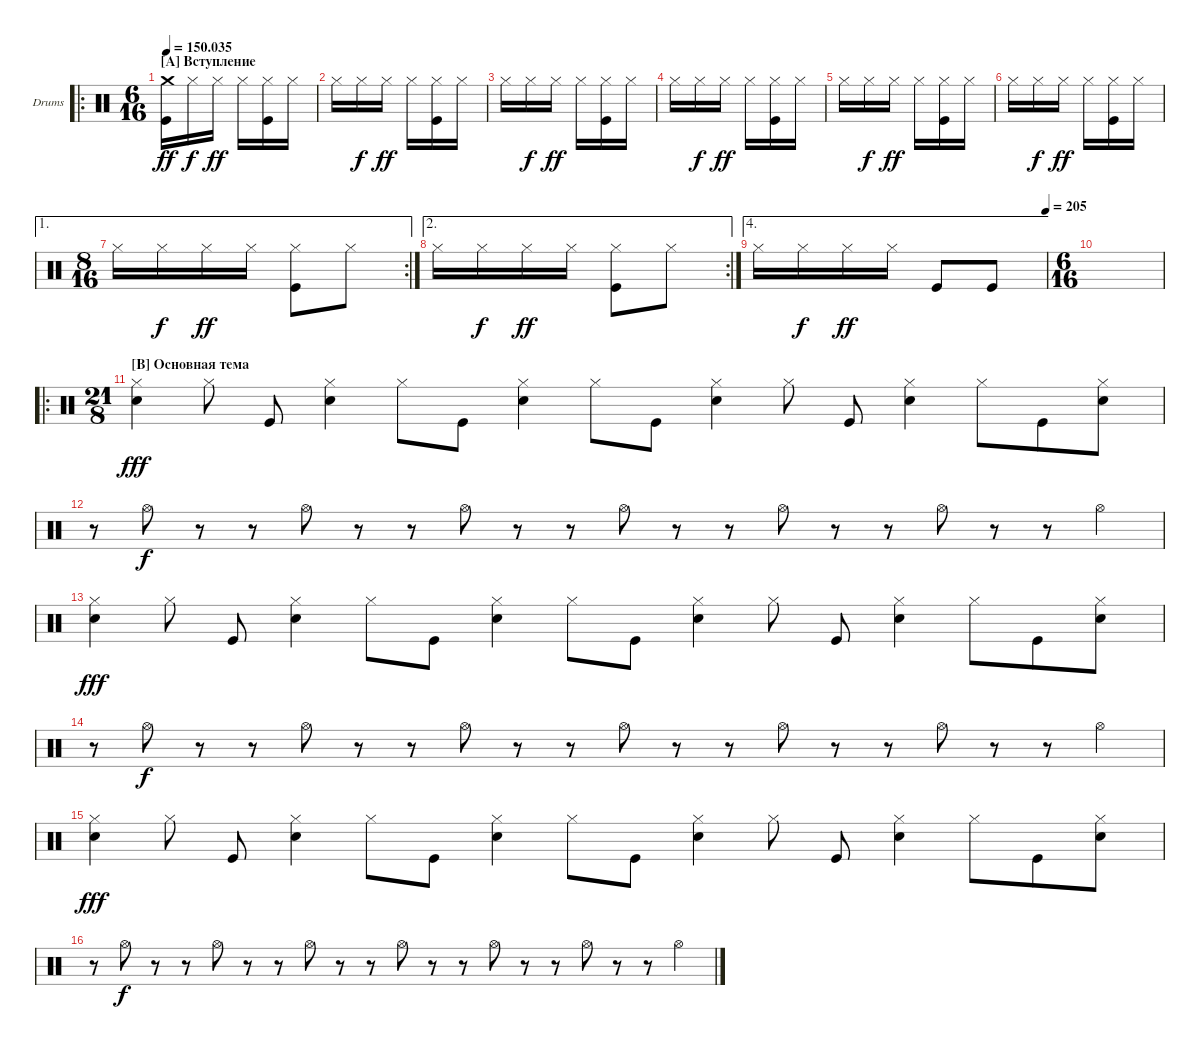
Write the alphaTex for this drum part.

\bracketExtendMode groupsimilarinstruments
\firstSystemTrackNameOrientation horizontal
\otherSystemsTrackNameOrientation horizontal
\track ("Сеня(Drumkit)" "Drums") {instrument percussion}
\staff {score}
\articulation defaults
\ro
\ts (6 16)
\section ("A" "Вступление")
\tempo
150.035
\accidentals auto
\clef neutral
\ottava regular
\simile none
\ks c
("Crash medium (hit)" "Kick (hit)").16{dy ff} "Hi-Hat (closed)".16{dy f} "Hi-Hat (closed)".16{dy ff} "Hi-Hat (closed)".16 ("Hi-Hat (closed)" "Kick (hit)").16 "Hi-Hat (closed)".16 |
"Hi-Hat (closed)".16 "Hi-Hat (closed)".16{dy f} "Hi-Hat (closed)".16{dy ff} "Hi-Hat (closed)".16 ("Hi-Hat (closed)" "Kick (hit)").16 "Hi-Hat (closed)".16 |
"Hi-Hat (closed)".16 "Hi-Hat (closed)".16{dy f} "Hi-Hat (closed)".16{dy ff} "Hi-Hat (closed)".16 ("Hi-Hat (closed)" "Kick (hit)").16 "Hi-Hat (closed)".16 |
"Hi-Hat (closed)".16 "Hi-Hat (closed)".16{dy f} "Hi-Hat (closed)".16{dy ff} "Hi-Hat (closed)".16 ("Hi-Hat (closed)" "Kick (hit)").16 "Hi-Hat (closed)".16 |
"Hi-Hat (closed)".16 "Hi-Hat (closed)".16{dy f} "Hi-Hat (closed)".16{dy ff} "Hi-Hat (closed)".16 ("Hi-Hat (closed)" "Kick (hit)").16 "Hi-Hat (closed)".16 |
"Hi-Hat (closed)".16 "Hi-Hat (closed)".16{dy f} "Hi-Hat (closed)".16{dy ff} "Hi-Hat (closed)".16 ("Hi-Hat (closed)" "Kick (hit)").16 "Hi-Hat (closed)".16 |
\ae 1
\rc 2
\ts (8 16)
"Hi-Hat (closed)".16 "Hi-Hat (closed)".16{dy f} "Hi-Hat (closed)".16{dy ff} "Hi-Hat (closed)".16 ("Hi-Hat (closed)" "Kick (hit)").8 "Hi-Hat (closed)".8 |
\ae 2
\rc 2 "Hi-Hat (closed)".16 "Hi-Hat (closed)".16{dy f} "Hi-Hat (closed)".16{dy ff} "Hi-Hat (closed)".16
("Hi-Hat (closed)" "Kick (hit)").8 "Hi-Hat (closed)".8 |
\ae 4
\tempo (205 1)
"Hi-Hat (closed)".16 "Hi-Hat (closed)".16{dy f} "Hi-Hat (closed)".16{dy ff} "Hi-Hat (closed)".16 "Kick (hit)".8 "Kick (hit)".8 |
\ts (6 16)
|
\ro
\ts (21 8)
\section ("B" "Основная тема")
("Snare (hit) 2" "Hi-Hat (closed)").4{dy fff} "Hi-Hat (closed)".8 "Kick (hit)".8 ("Snare (hit) 2" "Hi-Hat (closed)").4 "Hi-Hat (closed)".8 "Kick (hit)".8 ("Snare (hit) 2" "Hi-Hat (closed)").4 "Hi-Hat (closed)".8 "Kick (hit)".8 ("Snare (hit) 2" "Hi-Hat (closed)").4 "Hi-Hat (closed)".8 "Kick (hit)".8 ("Snare (hit) 2" "Hi-Hat (closed)").4 "Hi-Hat (closed)".8 "Kick (hit)".8 ("Snare (hit) 2" "Hi-Hat (closed)").8 |
r.8 "Hi-Hat (open)".8{dy f} r.8 r.8 "Hi-Hat (open)".8 r.8 r.8 "Hi-Hat (open)".8 r.8 r.8 "Hi-Hat (open)".8 r.8 r.8 "Hi-Hat (open)".8 r.8 r.8 "Hi-Hat (open)".8 r.8 r.8 "Hi-Hat (open)".4 |
("Snare (hit) 2" "Hi-Hat (closed)").4{dy fff} "Hi-Hat (closed)".8 "Kick (hit)".8 ("Snare (hit) 2" "Hi-Hat (closed)").4 "Hi-Hat (closed)".8 "Kick (hit)".8 ("Snare (hit) 2" "Hi-Hat (closed)").4 "Hi-Hat (closed)".8 "Kick (hit)".8 ("Snare (hit) 2" "Hi-Hat (closed)").4 "Hi-Hat (closed)".8 "Kick (hit)".8 ("Snare (hit) 2" "Hi-Hat (closed)").4 "Hi-Hat (closed)".8 "Kick (hit)".8 ("Snare (hit) 2" "Hi-Hat (closed)").8 |
r.8 "Hi-Hat (open)".8{dy f} r.8 r.8 "Hi-Hat (open)".8 r.8 r.8 "Hi-Hat (open)".8 r.8 r.8 "Hi-Hat (open)".8 r.8 r.8 "Hi-Hat (open)".8 r.8 r.8 "Hi-Hat (open)".8 r.8 r.8 "Hi-Hat (open)".4 |
("Snare (hit) 2" "Hi-Hat (closed)").4{dy fff} "Hi-Hat (closed)".8 "Kick (hit)".8 ("Snare (hit) 2" "Hi-Hat (closed)").4 "Hi-Hat (closed)".8 "Kick (hit)".8 ("Snare (hit) 2" "Hi-Hat (closed)").4 "Hi-Hat (closed)".8 "Kick (hit)".8 ("Snare (hit) 2" "Hi-Hat (closed)").4 "Hi-Hat (closed)".8 "Kick (hit)".8 ("Snare (hit) 2" "Hi-Hat (closed)").4 "Hi-Hat (closed)".8 "Kick (hit)".8 ("Snare (hit) 2" "Hi-Hat (closed)").8 |
r.8 "Hi-Hat (open)".8{dy f} r.8 r.8 "Hi-Hat (open)".8 r.8 r.8 "Hi-Hat (open)".8 r.8 r.8 "Hi-Hat (open)".8 r.8 r.8 "Hi-Hat (open)".8 r.8 r.8 "Hi-Hat (open)".8 r.8 r.8 "Hi-Hat (open)".4
